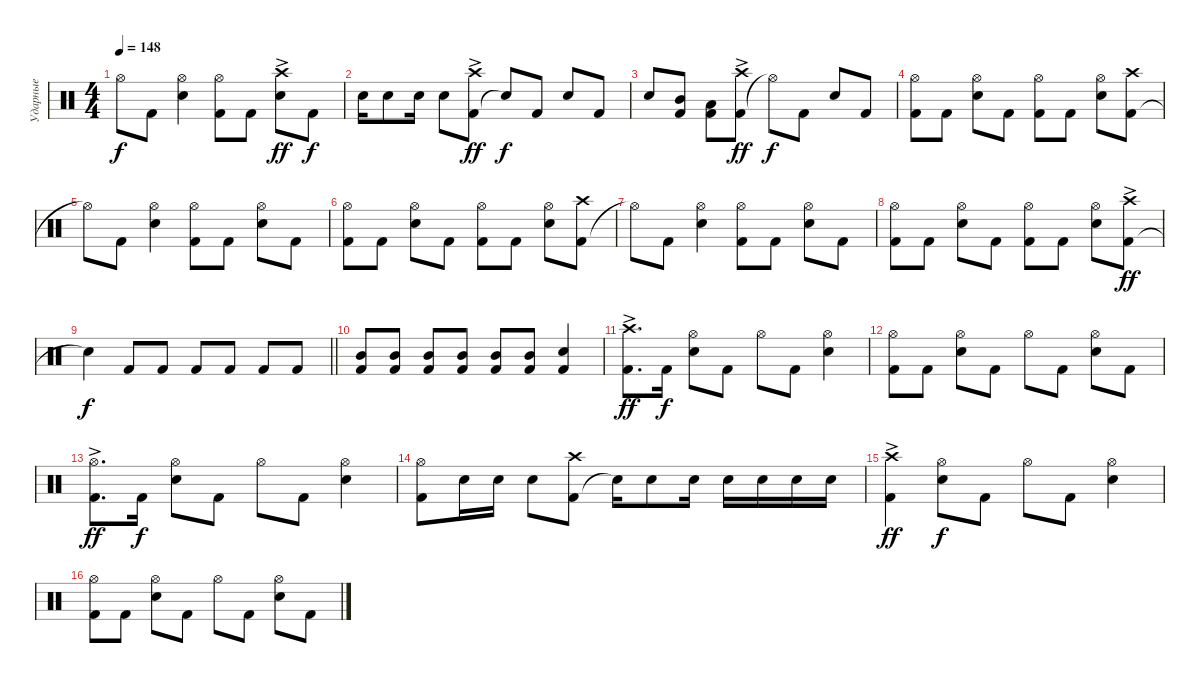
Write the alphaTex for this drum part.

\track ("Ударные" "Ударные") {instrument percussion}
\staff {score}
\articulation defaults
\ts (4 4)
\tempo 148
\clef neutral
\ks c "Hi-Hat (open)"{t}.8{dy f} "Kick (hit) 2".8
("Snare (hit) 2" "Hi-Hat (open)").4 ("Kick (hit) 2" "Hi-Hat (open)").8 "Kick (hit) 2".8 ("Snare (hit) 2" "Crash high (hit)"{ac}).8{dy ff} "Kick (hit) 2".8{dy f} |
"Snare (hit) 2".16 "Electric Snare (hit)".8 "Snare (hit) 2".16 "Electric Snare (hit)".8 ("Kick (hit) 2" "Crash high (hit)"{ac}).8{dy ff} "Snare (hit)"{t}.8{dy f} "Kick (hit) 2".8 "Snare (hit) 2".8 "Kick (hit) 2".8 |
"Snare (hit) 2".8 ("Kick (hit) 2" "Mid Tom (hit)").8 ("Kick (hit) 2" "Low Tom (hit)").8 ("Kick (hit) 2" "Crash high (hit)"{ac}).8{dy ff} "Hi-Hat (open)"{t}.8{dy f} "Kick (hit) 2".8 "Snare (hit) 2".8 "Kick (hit) 2".8 |
("Kick (hit) 2" "Hi-Hat (open)").8 "Kick (hit) 2".8 ("Snare (hit) 2" "Hi-Hat (open)").8 "Kick (hit) 2".8 ("Kick (hit) 2" "Hi-Hat (open)").8 "Kick (hit) 2".8 ("Snare (hit) 2" "Hi-Hat (open)").8 ("Kick (hit) 2" "Crash high (hit)").8 |
"Hi-Hat (open)"{t}.8 "Kick (hit) 2".8 ("Snare (hit) 2" "Hi-Hat (open)").4 ("Kick (hit) 2" "Hi-Hat (open)").8 "Kick (hit) 2".8 ("Snare (hit) 2" "Hi-Hat (open)").8 "Kick (hit) 2".8 |
("Kick (hit) 2" "Hi-Hat (open)").8 "Kick (hit) 2".8 ("Snare (hit) 2" "Hi-Hat (open)").8 "Kick (hit) 2".8 ("Kick (hit) 2" "Hi-Hat (open)").8 "Kick (hit) 2".8 ("Snare (hit) 2" "Hi-Hat (open)").8 ("Kick (hit) 2" "Crash high (hit)").8 |
"Hi-Hat (open)"{t}.8 "Kick (hit) 2".8 ("Snare (hit) 2" "Hi-Hat (open)").4 ("Kick (hit) 2" "Hi-Hat (open)").8 "Kick (hit) 2".8 ("Snare (hit) 2" "Hi-Hat (open)").8 "Kick (hit) 2".8 |
("Kick (hit) 2" "Hi-Hat (open)").8 "Kick (hit) 2".8 ("Snare (hit) 2" "Hi-Hat (open)").8 "Kick (hit) 2".8 ("Kick (hit) 2" "Hi-Hat (open)").8 "Kick (hit) 2".8 ("Snare (hit) 2" "Hi-Hat (open)").8 ("Kick (hit) 2" "Crash high (hit)"{ac}).8{dy ff} |
\barLineRight lightlight "Snare (hit)"{t}.4{dy f} "Kick (hit) 2".8 "Kick (hit) 2".8 "Kick (hit) 2".8 "Kick (hit) 2".8 "Kick (hit) 2".8 "Kick (hit) 2".8
|
("Kick (hit) 2" "Mid Tom (hit)").8 ("Kick (hit) 2" "Mid Tom (hit)").8 ("Kick (hit) 2" "Mid Tom (hit)").8 ("Kick (hit) 2" "Mid Tom (hit)").8 ("Kick (hit) 2" "Mid Tom (hit)").8 ("Kick (hit) 2" "Mid Tom (hit)").8 ("Kick (hit) 2" "Snare (hit) 2").4 |
("Kick (hit) 2" "Crash high (hit)"{ac}).8{d dy ff} "Kick (hit) 2".16{dy f} ("Snare (hit) 2" "Hi-Hat (open)").8 "Kick (hit) 2".8 "Hi-Hat (open)".8 "Kick (hit) 2".8 ("Snare (hit) 2" "Hi-Hat (open)").4 |
("Kick (hit) 2" "Hi-Hat (open)").8 "Kick (hit) 2".8 ("Snare (hit) 2" "Hi-Hat (open)").8 "Kick (hit) 2".8 "Hi-Hat (open)".8 "Kick (hit) 2".8 ("Snare (hit) 2" "Hi-Hat (open)").8 "Kick (hit) 2".8 |
("Kick (hit) 2" "Hi-Hat (open)"{ac}).8{d dy ff} "Kick (hit) 2".16{dy f} ("Snare (hit) 2" "Hi-Hat (open)").8 "Kick (hit) 2".8 "Hi-Hat (open)".8 "Kick (hit) 2".8 ("Snare (hit) 2" "Hi-Hat (open)").4 |
("Kick (hit) 2" "Hi-Hat (open)").8 "Electric Snare (hit)".16 "Snare (hit) 2".16 "Electric Snare (hit)".8 ("Kick (hit) 2" "Crash high (hit)").8 "Snare (hit)"{t}.16 "Snare (hit) 2".8 "Electric Snare (hit)".16 "Snare (hit) 2".16 "Snare (hit) 2".16 "Snare (hit) 2".16 "Snare (hit) 2".16 |
("Kick (hit) 2" "Crash high (hit)"{ac}).4{dy ff} ("Snare (hit) 2" "Hi-Hat (open)").8{dy f} "Kick (hit) 2".8 "Hi-Hat (open)".8 "Kick (hit) 2".8 ("Snare (hit) 2" "Hi-Hat (open)").4 |
("Kick (hit) 2" "Hi-Hat (open)").8 "Kick (hit) 2".8 ("Snare (hit) 2" "Hi-Hat (open)").8 "Kick (hit) 2".8 "Hi-Hat (open)".8 "Kick (hit) 2".8 ("Snare (hit) 2" "Hi-Hat (open)").8 "Kick (hit) 2".8
